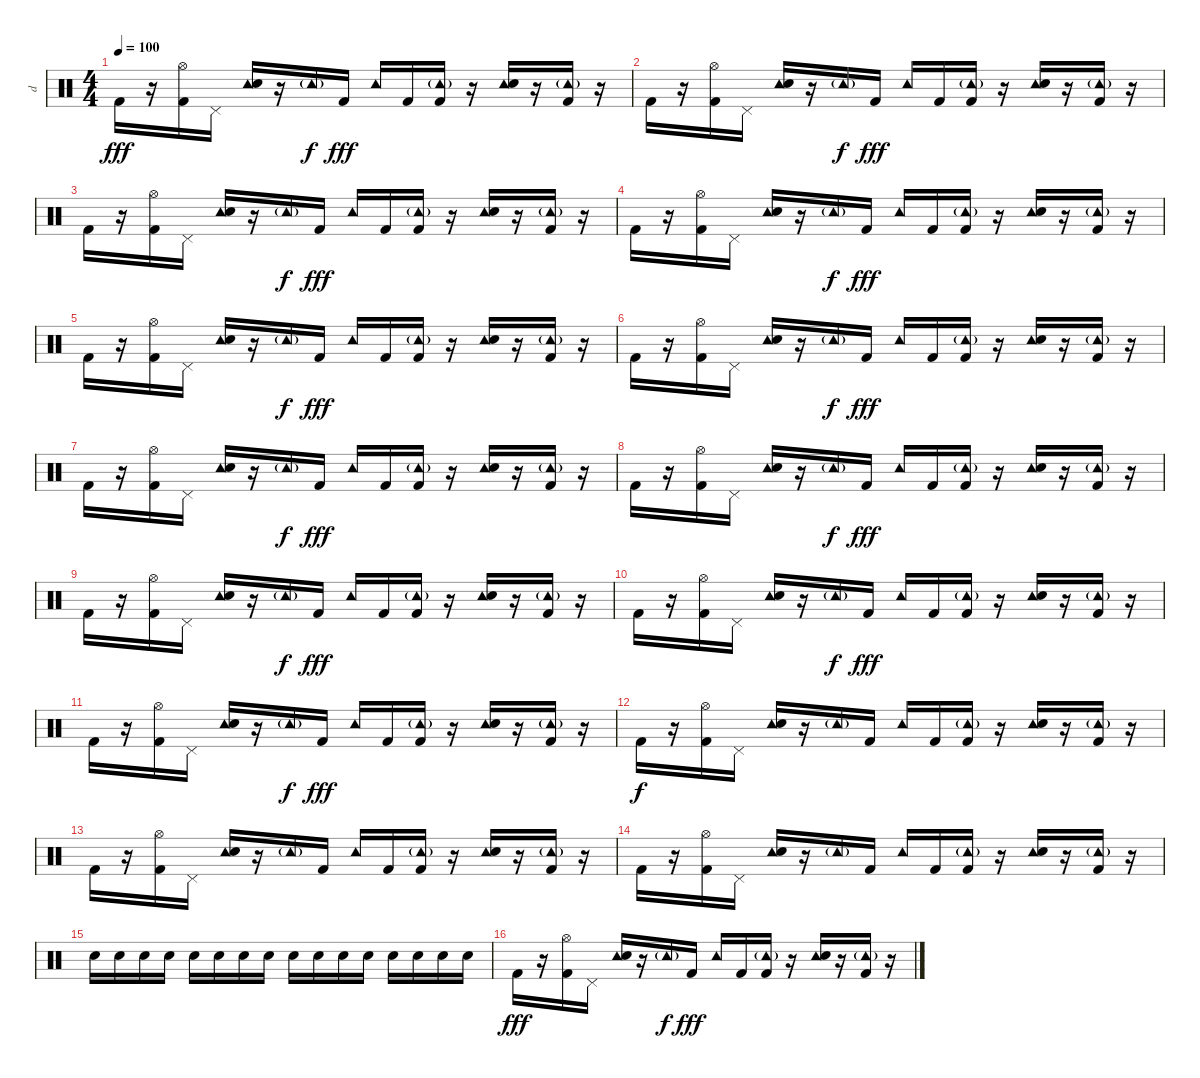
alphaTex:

\track ("d" "d") {instrument percussion}
\staff {score}
\articulation defaults
\ts (4 4)
\tempo 100
\clef neutral
\ks c "Kick (hit) 2".16{dy fff}
r.16 ("Hi-Hat (open)" "Kick (hit) 2").16 "Pedal Hi-Hat (hit)".16 ("Tambourine (hit)" "Snare (hit) 2").16 r.16 "Tambourine (hit)"{g}.16{dy f} "Kick (hit) 2".16{dy fff} "Tambourine (hit)".16 "Kick (hit) 2".16 ("Tambourine (hit)"{g} "Kick (hit) 2").16 r.16 ("Tambourine (hit)" "Snare (hit) 2").16 r.16 ("Tambourine (hit)"{g} "Kick (hit) 2").16 r.16 |
"Kick (hit) 2".16 r.16 ("Hi-Hat (open)" "Kick (hit) 2").16 "Pedal Hi-Hat (hit)".16 ("Tambourine (hit)" "Snare (hit) 2").16 r.16 "Tambourine (hit)"{g}.16{dy f} "Kick (hit) 2".16{dy fff} "Tambourine (hit)".16 "Kick (hit) 2".16 ("Tambourine (hit)"{g} "Kick (hit) 2").16 r.16 ("Tambourine (hit)" "Snare (hit) 2").16 r.16 ("Tambourine (hit)"{g} "Kick (hit) 2").16 r.16 |
"Kick (hit) 2".16 r.16 ("Hi-Hat (open)" "Kick (hit) 2").16 "Pedal Hi-Hat (hit)".16 ("Tambourine (hit)" "Snare (hit) 2").16 r.16 "Tambourine (hit)"{g}.16{dy f} "Kick (hit) 2".16{dy fff} "Tambourine (hit)".16 "Kick (hit) 2".16 ("Tambourine (hit)"{g} "Kick (hit) 2").16 r.16 ("Tambourine (hit)" "Snare (hit) 2").16 r.16 ("Tambourine (hit)"{g} "Kick (hit) 2").16 r.16 |
"Kick (hit) 2".16 r.16 ("Hi-Hat (open)" "Kick (hit) 2").16 "Pedal Hi-Hat (hit)".16 ("Tambourine (hit)" "Snare (hit) 2").16 r.16 "Tambourine (hit)"{g}.16{dy f} "Kick (hit) 2".16{dy fff} "Tambourine (hit)".16 "Kick (hit) 2".16 ("Tambourine (hit)"{g} "Kick (hit) 2").16 r.16 ("Tambourine (hit)" "Snare (hit) 2").16 r.16 ("Tambourine (hit)"{g} "Kick (hit) 2").16 r.16 |
"Kick (hit) 2".16 r.16 ("Hi-Hat (open)" "Kick (hit) 2").16 "Pedal Hi-Hat (hit)".16 ("Tambourine (hit)" "Snare (hit) 2").16 r.16 "Tambourine (hit)"{g}.16{dy f} "Kick (hit) 2".16{dy fff} "Tambourine (hit)".16 "Kick (hit) 2".16 ("Tambourine (hit)"{g} "Kick (hit) 2").16 r.16 ("Tambourine (hit)" "Snare (hit) 2").16 r.16 ("Tambourine (hit)"{g} "Kick (hit) 2").16 r.16 |
"Kick (hit) 2".16 r.16 ("Hi-Hat (open)" "Kick (hit) 2").16 "Pedal Hi-Hat (hit)".16 ("Tambourine (hit)" "Snare (hit) 2").16 r.16 "Tambourine (hit)"{g}.16{dy f} "Kick (hit) 2".16{dy fff} "Tambourine (hit)".16 "Kick (hit) 2".16 ("Tambourine (hit)"{g} "Kick (hit) 2").16 r.16 ("Tambourine (hit)" "Snare (hit) 2").16 r.16 ("Tambourine (hit)"{g} "Kick (hit) 2").16 r.16 |
"Kick (hit) 2".16 r.16 ("Hi-Hat (open)" "Kick (hit) 2").16 "Pedal Hi-Hat (hit)".16 ("Tambourine (hit)" "Snare (hit) 2").16 r.16 "Tambourine (hit)"{g}.16{dy f} "Kick (hit) 2".16{dy fff} "Tambourine (hit)".16 "Kick (hit) 2".16 ("Tambourine (hit)"{g} "Kick (hit) 2").16 r.16 ("Tambourine (hit)" "Snare (hit) 2").16 r.16 ("Tambourine (hit)"{g} "Kick (hit) 2").16 r.16 |
"Kick (hit) 2".16 r.16 ("Hi-Hat (open)" "Kick (hit) 2").16 "Pedal Hi-Hat (hit)".16 ("Tambourine (hit)" "Snare (hit) 2").16 r.16 "Tambourine (hit)"{g}.16{dy f} "Kick (hit) 2".16{dy fff} "Tambourine (hit)".16 "Kick (hit) 2".16 ("Tambourine (hit)"{g} "Kick (hit) 2").16 r.16 ("Tambourine (hit)" "Snare (hit) 2").16 r.16 ("Tambourine (hit)"{g} "Kick (hit) 2").16 r.16 |
"Kick (hit) 2".16 r.16 ("Hi-Hat (open)" "Kick (hit) 2").16 "Pedal Hi-Hat (hit)".16 ("Tambourine (hit)" "Snare (hit) 2").16 r.16 "Tambourine (hit)"{g}.16{dy f} "Kick (hit) 2".16{dy fff} "Tambourine (hit)".16 "Kick (hit) 2".16 ("Tambourine (hit)"{g} "Kick (hit) 2").16 r.16 ("Tambourine (hit)" "Snare (hit) 2").16 r.16 ("Tambourine (hit)"{g} "Kick (hit) 2").16 r.16 |
"Kick (hit) 2".16 r.16 ("Hi-Hat (open)" "Kick (hit) 2").16 "Pedal Hi-Hat (hit)".16 ("Tambourine (hit)" "Snare (hit) 2").16 r.16 "Tambourine (hit)"{g}.16{dy f} "Kick (hit) 2".16{dy fff} "Tambourine (hit)".16 "Kick (hit) 2".16 ("Tambourine (hit)"{g} "Kick (hit) 2").16 r.16 ("Tambourine (hit)" "Snare (hit) 2").16 r.16 ("Tambourine (hit)"{g} "Kick (hit) 2").16 r.16 |
"Kick (hit) 2".16 r.16 ("Hi-Hat (open)" "Kick (hit) 2").16 "Pedal Hi-Hat (hit)".16 ("Tambourine (hit)" "Snare (hit) 2").16 r.16 "Tambourine (hit)"{g}.16{dy f} "Kick (hit) 2".16{dy fff} "Tambourine (hit)".16 "Kick (hit) 2".16 ("Tambourine (hit)"{g} "Kick (hit) 2").16 r.16 ("Tambourine (hit)" "Snare (hit) 2").16 r.16 ("Tambourine (hit)"{g} "Kick (hit) 2").16 r.16 |
"Kick (hit) 2".16{dy f} r.16 ("Hi-Hat (open)" "Kick (hit) 2").16 "Pedal Hi-Hat (hit)".16 ("Tambourine (hit)" "Snare (hit) 2").16 r.16 "Tambourine (hit)"{g}.16 "Kick (hit) 2".16 "Tambourine (hit)".16 "Kick (hit) 2".16 ("Tambourine (hit)"{g} "Kick (hit) 2").16 r.16 ("Tambourine (hit)" "Snare (hit) 2").16 r.16 ("Tambourine (hit)"{g} "Kick (hit) 2").16 r.16 |
"Kick (hit) 2".16 r.16 ("Hi-Hat (open)" "Kick (hit) 2").16 "Pedal Hi-Hat (hit)".16 ("Tambourine (hit)" "Snare (hit) 2").16 r.16 "Tambourine (hit)"{g}.16 "Kick (hit) 2".16 "Tambourine (hit)".16 "Kick (hit) 2".16 ("Tambourine (hit)"{g} "Kick (hit) 2").16 r.16 ("Tambourine (hit)" "Snare (hit) 2").16 r.16 ("Tambourine (hit)"{g} "Kick (hit) 2").16 r.16 |
"Kick (hit) 2".16 r.16 ("Hi-Hat (open)" "Kick (hit) 2").16 "Pedal Hi-Hat (hit)".16 ("Tambourine (hit)" "Snare (hit) 2").16 r.16 "Tambourine (hit)"{g}.16 "Kick (hit) 2".16 "Tambourine (hit)".16 "Kick (hit) 2".16 ("Tambourine (hit)"{g} "Kick (hit) 2").16 r.16 ("Tambourine (hit)" "Snare (hit) 2").16 r.16 ("Tambourine (hit)"{g} "Kick (hit) 2").16 r.16 |
"Snare (hit) 2".16 "Snare (hit) 2".16 "Snare (hit) 2".16 "Snare (hit) 2".16 "Snare (hit) 2".16 "Snare (hit) 2".16 "Snare (hit) 2".16 "Snare (hit) 2".16 "Snare (hit) 2".16 "Snare (hit) 2".16 "Snare (hit) 2".16 "Snare (hit) 2".16 "Snare (hit) 2".16 "Snare (hit) 2".16 "Snare (hit) 2".16 "Snare (hit) 2".16 |
"Kick (hit) 2".16{dy fff} r.16 ("Hi-Hat (open)" "Kick (hit) 2").16 "Pedal Hi-Hat (hit)".16 ("Tambourine (hit)" "Snare (hit) 2").16 r.16 "Tambourine (hit)"{g}.16{dy f} "Kick (hit) 2".16{dy fff} "Tambourine (hit)".16 "Kick (hit) 2".16 ("Tambourine (hit)"{g} "Kick (hit) 2").16 r.16 ("Tambourine (hit)" "Snare (hit) 2").16 r.16 ("Tambourine (hit)"{g} "Kick (hit) 2").16 r.16
